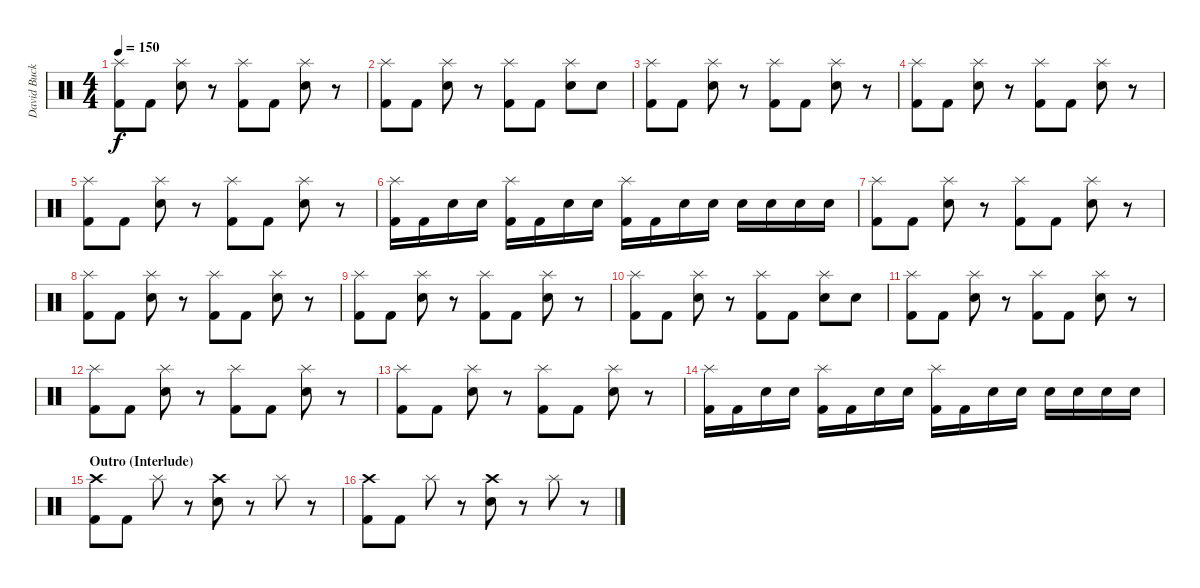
\track ("David Buckner" "David Buck") {instrument percussion}
\staff {score}
\articulation defaults
\ts (4 4)
\tempo 150
\clef neutral
\ks c
("Splash (hit)" "Kick (hit) 2").8{dy f} "Kick (hit) 2".8 ("Splash (hit)" "Snare (hit) 2").8 r.8 ("Splash (hit)" "Kick (hit) 2").8 "Kick (hit) 2".8 ("Splash (hit)" "Snare (hit) 2").8 r.8 |
("Splash (hit)" "Kick (hit) 2").8 "Kick (hit) 2".8 ("Splash (hit)" "Snare (hit) 2").8 r.8 ("Splash (hit)" "Kick (hit) 2").8 "Kick (hit) 2".8 ("Splash (hit)" "Snare (hit) 2").8 "Snare (hit) 2".8 |
("Splash (hit)" "Kick (hit) 2").8 "Kick (hit) 2".8 ("Splash (hit)" "Snare (hit) 2").8 r.8 ("Splash (hit)" "Kick (hit) 2").8 "Kick (hit) 2".8 ("Splash (hit)" "Snare (hit) 2").8 r.8 |
("Splash (hit)" "Kick (hit) 2").8 "Kick (hit) 2".8 ("Splash (hit)" "Snare (hit) 2").8 r.8 ("Splash (hit)" "Kick (hit) 2").8 "Kick (hit) 2".8 ("Splash (hit)" "Snare (hit) 2").8 r.8 |
("Splash (hit)" "Kick (hit) 2").8 "Kick (hit) 2".8 ("Splash (hit)" "Snare (hit) 2").8 r.8 ("Splash (hit)" "Kick (hit) 2").8 "Kick (hit) 2".8 ("Splash (hit)" "Snare (hit) 2").8 r.8 |
("Splash (hit)" "Kick (hit) 2").16 "Kick (hit) 2".16 "Snare (hit) 2".16 "Snare (hit) 2".16 ("Splash (hit)" "Kick (hit) 2").16 "Kick (hit) 2".16 "Snare (hit) 2".16 "Snare (hit) 2".16 ("Splash (hit)" "Kick (hit) 2").16 "Kick (hit) 2".16 "Snare (hit) 2".16 "Snare (hit) 2".16 "Snare (hit) 2".16 "Snare (hit) 2".16 "Snare (hit) 2".16 "Snare (hit) 2".16 |
("Splash (hit)" "Kick (hit) 2").8 "Kick (hit) 2".8 ("Splash (hit)" "Snare (hit) 2").8 r.8 ("Splash (hit)" "Kick (hit) 2").8 "Kick (hit) 2".8 ("Splash (hit)" "Snare (hit) 2").8 r.8 |
("Splash (hit)" "Kick (hit) 2").8 "Kick (hit) 2".8 ("Splash (hit)" "Snare (hit) 2").8 r.8 ("Splash (hit)" "Kick (hit) 2").8 "Kick (hit) 2".8 ("Splash (hit)" "Snare (hit) 2").8 r.8 |
("Splash (hit)" "Kick (hit) 2").8 "Kick (hit) 2".8 ("Splash (hit)" "Snare (hit) 2").8 r.8 ("Splash (hit)" "Kick (hit) 2").8 "Kick (hit) 2".8 ("Splash (hit)" "Snare (hit) 2").8 r.8 |
("Splash (hit)" "Kick (hit) 2").8 "Kick (hit) 2".8 ("Splash (hit)" "Snare (hit) 2").8 r.8 ("Splash (hit)" "Kick (hit) 2").8 "Kick (hit) 2".8 ("Splash (hit)" "Snare (hit) 2").8 "Snare (hit) 2".8 |
("Splash (hit)" "Kick (hit) 2").8 "Kick (hit) 2".8 ("Splash (hit)" "Snare (hit) 2").8 r.8 ("Splash (hit)" "Kick (hit) 2").8 "Kick (hit) 2".8 ("Splash (hit)" "Snare (hit) 2").8 r.8 |
("Splash (hit)" "Kick (hit) 2").8 "Kick (hit) 2".8 ("Splash (hit)" "Snare (hit) 2").8 r.8 ("Splash (hit)" "Kick (hit) 2").8 "Kick (hit) 2".8 ("Splash (hit)" "Snare (hit) 2").8 r.8 |
("Splash (hit)" "Kick (hit) 2").8 "Kick (hit) 2".8 ("Splash (hit)" "Snare (hit) 2").8 r.8 ("Splash (hit)" "Kick (hit) 2").8 "Kick (hit) 2".8 ("Splash (hit)" "Snare (hit) 2").8 r.8 |
("Splash (hit)" "Kick (hit) 2").16 "Kick (hit) 2".16 "Snare (hit) 2".16 "Snare (hit) 2".16 ("Splash (hit)" "Kick (hit) 2").16 "Kick (hit) 2".16 "Snare (hit) 2".16 "Snare (hit) 2".16 ("Splash (hit)" "Kick (hit) 2").16 "Kick (hit) 2".16 "Snare (hit) 2".16 "Snare (hit) 2".16 "Snare (hit) 2".16 "Snare (hit) 2".16 "Snare (hit) 2".16 "Snare (hit) 2".16 |
\section ("" "Outro (Interlude)")
("Crash high (hit)" "Kick (hit) 2").8 "Kick (hit) 2".8 "Splash (hit)".8 r.8 ("Crash high (hit)" "Snare (hit) 2").8 r.8 "Splash (hit)".8 r.8 |
("Crash high (hit)" "Kick (hit) 2").8 "Kick (hit) 2".8 "Splash (hit)".8 r.8 ("Crash high (hit)" "Snare (hit) 2").8 r.8 "Splash (hit)".8 r.8
